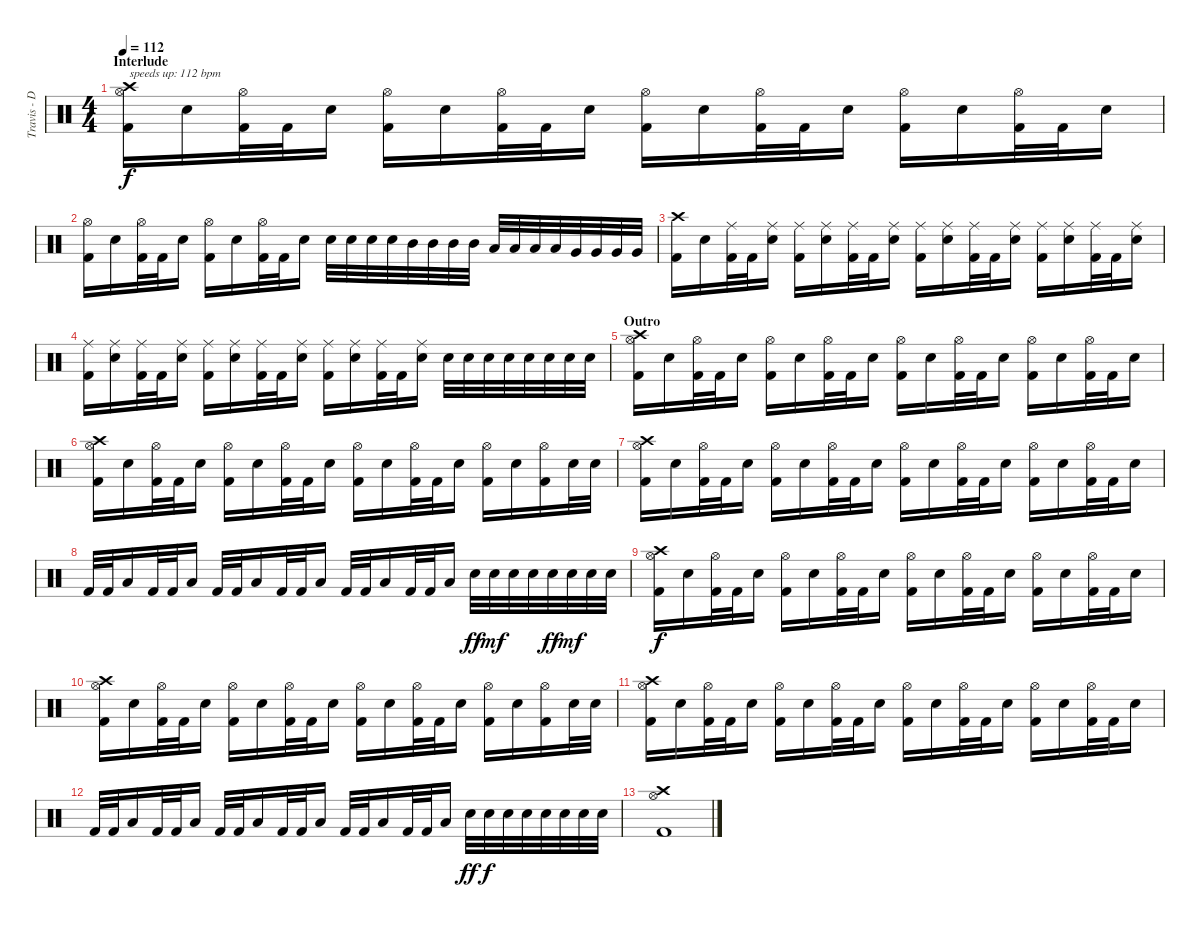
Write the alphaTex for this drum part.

\track ("Travis - Drums" "Travis - D") {instrument percussion}
\staff {score}
\articulation defaults
\ts (4 4)
\section ("" "Interlude")
\tempo 112
\clef neutral
\ks c
("Crash high (hit)" "Hi-Hat (open)" "Kick (hit) 2").16{txt "speeds up: 112 bpm" dy f} "Electric Snare (hit)".16 ("Hi-Hat (open)" "Kick (hit) 2").32 "Kick (hit) 2".32 "Electric Snare (hit)".16 ("Hi-Hat (open)" "Kick (hit) 2").16 "Electric Snare (hit)".16 ("Hi-Hat (open)" "Kick (hit) 2").32 "Kick (hit) 2".32 "Electric Snare (hit)".16 ("Hi-Hat (open)" "Kick (hit) 2").16 "Electric Snare (hit)".16 ("Hi-Hat (open)" "Kick (hit) 2").32 "Kick (hit) 2".32 "Electric Snare (hit)".16 ("Hi-Hat (open)" "Kick (hit) 2").16 "Electric Snare (hit)".16 ("Hi-Hat (open)" "Kick (hit) 2").32 "Kick (hit) 2".32 "Electric Snare (hit)".16 |
("Hi-Hat (open)" "Kick (hit) 2").16 "Electric Snare (hit)".16 ("Hi-Hat (open)" "Kick (hit) 2").32 "Kick (hit) 2".32 "Electric Snare (hit)".16 ("Hi-Hat (open)" "Kick (hit) 2").16 "Electric Snare (hit)".16 ("Hi-Hat (open)" "Kick (hit) 2").32 "Kick (hit) 2".32 "Electric Snare (hit)".16 "Electric Snare (hit)".32 "Electric Snare (hit)".32 "Electric Snare (hit)".32 "Electric Snare (hit)".32 "Mid Tom (hit)".32 "Mid Tom (hit)".32 "Mid Tom (hit)".32 "Mid Tom (hit)".32 "Low Tom (hit)".32 "Low Tom (hit)".32 "Low Tom (hit)".32 "Low Tom (hit)".32 "Very Low Tom (hit)".32 "Very Low Tom (hit)".32 "Very Low Tom (hit)".32 "Very Low Tom (hit)".32 |
("Crash high (hit)" "Kick (hit) 2").16 "Electric Snare (hit)".16 ("Ride (middle)" "Kick (hit) 2").32 "Kick (hit) 2".32 ("Ride (middle)" "Electric Snare (hit)").16 ("Ride (middle)" "Kick (hit) 2").16 ("Ride (middle)" "Electric Snare (hit)").16 ("Ride (middle)" "Kick (hit) 2").32 "Kick (hit) 2".32 ("Ride (middle)" "Electric Snare (hit)").16 ("Ride (middle)" "Kick (hit) 2").16 ("Ride (middle)" "Electric Snare (hit)").16 ("Ride (middle)" "Kick (hit) 2").32 "Kick (hit) 2".32 ("Ride (middle)" "Electric Snare (hit)").16 ("Ride (middle)" "Kick (hit) 2").16 ("Ride (middle)" "Electric Snare (hit)").16 ("Ride (middle)" "Kick (hit) 2").32 "Kick (hit) 2".32 ("Ride (middle)" "Electric Snare (hit)").16 |
("Ride (middle)" "Kick (hit) 2").16 ("Ride (middle)" "Electric Snare (hit)").16 ("Ride (middle)" "Kick (hit) 2").32 "Kick (hit) 2".32 ("Ride (middle)" "Electric Snare (hit)").16 ("Ride (middle)" "Kick (hit) 2").16 ("Ride (middle)" "Electric Snare (hit)").16 ("Ride (middle)" "Kick (hit) 2").32 "Kick (hit) 2".32 ("Ride (middle)" "Electric Snare (hit)").16 ("Ride (middle)" "Kick (hit) 2").16 ("Ride (middle)" "Electric Snare (hit)").16 ("Ride (middle)" "Kick (hit) 2").32 "Kick (hit) 2".32 ("Ride (middle)" "Electric Snare (hit)").16 "Electric Snare (hit)".32 "Electric Snare (hit)".32 "Electric Snare (hit)".32 "Electric Snare (hit)".32 "Electric Snare (hit)".32 "Electric Snare (hit)".32 "Electric Snare (hit)".32 "Electric Snare (hit)".32 |
\section ("" "Outro")
("Crash high (hit)" "Hi-Hat (open)" "Kick (hit) 2").16 "Electric Snare (hit)".16 ("Hi-Hat (open)" "Kick (hit) 2").32 "Kick (hit) 2".32 "Electric Snare (hit)".16 ("Hi-Hat (open)" "Kick (hit) 2").16 "Electric Snare (hit)".16 ("Hi-Hat (open)" "Kick (hit) 2").32 "Kick (hit) 2".32 "Electric Snare (hit)".16 ("Hi-Hat (open)" "Kick (hit) 2").16 "Electric Snare (hit)".16 ("Hi-Hat (open)" "Kick (hit) 2").32 "Kick (hit) 2".32 "Electric Snare (hit)".16 ("Hi-Hat (open)" "Kick (hit) 2").16 "Electric Snare (hit)".16 ("Hi-Hat (open)" "Kick (hit) 2").32 "Kick (hit) 2".32 "Electric Snare (hit)".16 |
("Crash high (hit)" "Hi-Hat (open)" "Kick (hit) 2").16 "Electric Snare (hit)".16 ("Hi-Hat (open)" "Kick (hit) 2").32 "Kick (hit) 2".32 "Electric Snare (hit)".16 ("Hi-Hat (open)" "Kick (hit) 2").16 "Electric Snare (hit)".16 ("Hi-Hat (open)" "Kick (hit) 2").32 "Kick (hit) 2".32 "Electric Snare (hit)".16 ("Hi-Hat (open)" "Kick (hit) 2").16 "Electric Snare (hit)".16 ("Hi-Hat (open)" "Kick (hit) 2").32 "Kick (hit) 2".32 "Electric Snare (hit)".16 ("Hi-Hat (open)" "Kick (hit) 2").16 "Electric Snare (hit)".16 ("Hi-Hat (open)" "Kick (hit) 2").16 "Electric Snare (hit)".32 "Electric Snare (hit)".32 |
("Crash high (hit)" "Hi-Hat (open)" "Kick (hit) 2").16 "Electric Snare (hit)".16 ("Hi-Hat (open)" "Kick (hit) 2").32 "Kick (hit) 2".32 "Electric Snare (hit)".16 ("Hi-Hat (open)" "Kick (hit) 2").16 "Electric Snare (hit)".16 ("Hi-Hat (open)" "Kick (hit) 2").32 "Kick (hit) 2".32 "Electric Snare (hit)".16 ("Hi-Hat (open)" "Kick (hit) 2").16 "Electric Snare (hit)".16 ("Hi-Hat (open)" "Kick (hit) 2").32 "Kick (hit) 2".32 "Electric Snare (hit)".16 ("Hi-Hat (open)" "Kick (hit) 2").16 "Electric Snare (hit)".16 ("Hi-Hat (open)" "Kick (hit) 2").32 "Kick (hit) 2".32 "Electric Snare (hit)".16 |
"Kick (hit) 2".32 "Kick (hit) 2".32 "Low Tom (hit)".16 "Kick (hit) 2".32 "Kick (hit) 2".32 "Low Tom (hit)".16 "Kick (hit) 2".32 "Kick (hit) 2".32 "Low Tom (hit)".16 "Kick (hit) 2".32 "Kick (hit) 2".32 "Low Tom (hit)".16 "Kick (hit) 2".32 "Kick (hit) 2".32 "Low Tom (hit)".16 "Kick (hit) 2".32 "Kick (hit) 2".32 "Low Tom (hit)".16 "Electric Snare (hit)".32{dy ff} "Electric Snare (hit)".32{dy mf} "Electric Snare (hit)".32 "Electric Snare (hit)".32 "Electric Snare (hit)".32{dy ff} "Electric Snare (hit)".32{dy mf} "Electric Snare (hit)".32 "Electric Snare (hit)".32 |
("Crash high (hit)" "Hi-Hat (open)" "Kick (hit) 2").16{dy f} "Electric Snare (hit)".16 ("Hi-Hat (open)" "Kick (hit) 2").32 "Kick (hit) 2".32 "Electric Snare (hit)".16 ("Hi-Hat (open)" "Kick (hit) 2").16 "Electric Snare (hit)".16 ("Hi-Hat (open)" "Kick (hit) 2").32 "Kick (hit) 2".32 "Electric Snare (hit)".16 ("Hi-Hat (open)" "Kick (hit) 2").16 "Electric Snare (hit)".16 ("Hi-Hat (open)" "Kick (hit) 2").32 "Kick (hit) 2".32 "Electric Snare (hit)".16 ("Hi-Hat (open)" "Kick (hit) 2").16 "Electric Snare (hit)".16 ("Hi-Hat (open)" "Kick (hit) 2").32 "Kick (hit) 2".32 "Electric Snare (hit)".16 |
("Crash high (hit)" "Hi-Hat (open)" "Kick (hit) 2").16 "Electric Snare (hit)".16 ("Hi-Hat (open)" "Kick (hit) 2").32 "Kick (hit) 2".32 "Electric Snare (hit)".16 ("Hi-Hat (open)" "Kick (hit) 2").16 "Electric Snare (hit)".16 ("Hi-Hat (open)" "Kick (hit) 2").32 "Kick (hit) 2".32 "Electric Snare (hit)".16 ("Hi-Hat (open)" "Kick (hit) 2").16 "Electric Snare (hit)".16 ("Hi-Hat (open)" "Kick (hit) 2").32 "Kick (hit) 2".32 "Electric Snare (hit)".16 ("Hi-Hat (open)" "Kick (hit) 2").16 "Electric Snare (hit)".16 ("Hi-Hat (open)" "Kick (hit) 2").16 "Electric Snare (hit)".32 "Electric Snare (hit)".32 |
("Crash high (hit)" "Hi-Hat (open)" "Kick (hit) 2").16 "Electric Snare (hit)".16 ("Hi-Hat (open)" "Kick (hit) 2").32 "Kick (hit) 2".32 "Electric Snare (hit)".16 ("Hi-Hat (open)" "Kick (hit) 2").16 "Electric Snare (hit)".16 ("Hi-Hat (open)" "Kick (hit) 2").32 "Kick (hit) 2".32 "Electric Snare (hit)".16 ("Hi-Hat (open)" "Kick (hit) 2").16 "Electric Snare (hit)".16 ("Hi-Hat (open)" "Kick (hit) 2").32 "Kick (hit) 2".32 "Electric Snare (hit)".16 ("Hi-Hat (open)" "Kick (hit) 2").16 "Electric Snare (hit)".16 ("Hi-Hat (open)" "Kick (hit) 2").32 "Kick (hit) 2".32 "Electric Snare (hit)".16 |
"Kick (hit) 2".32 "Kick (hit) 2".32 "Low Tom (hit)".16 "Kick (hit) 2".32 "Kick (hit) 2".32 "Low Tom (hit)".16 "Kick (hit) 2".32 "Kick (hit) 2".32 "Low Tom (hit)".16 "Kick (hit) 2".32 "Kick (hit) 2".32 "Low Tom (hit)".16 "Kick (hit) 2".32 "Kick (hit) 2".32 "Low Tom (hit)".16 "Kick (hit) 2".32 "Kick (hit) 2".32 "Low Tom (hit)".16 "Electric Snare (hit)".32{dy ff} "Electric Snare (hit)".32{dy f} "Electric Snare (hit)".32 "Electric Snare (hit)".32 "Electric Snare (hit)".32 "Electric Snare (hit)".32 "Electric Snare (hit)".32 "Electric Snare (hit)".32 |
("Crash high (hit)" "Hi-Hat (open)" "Kick (hit) 2").1
